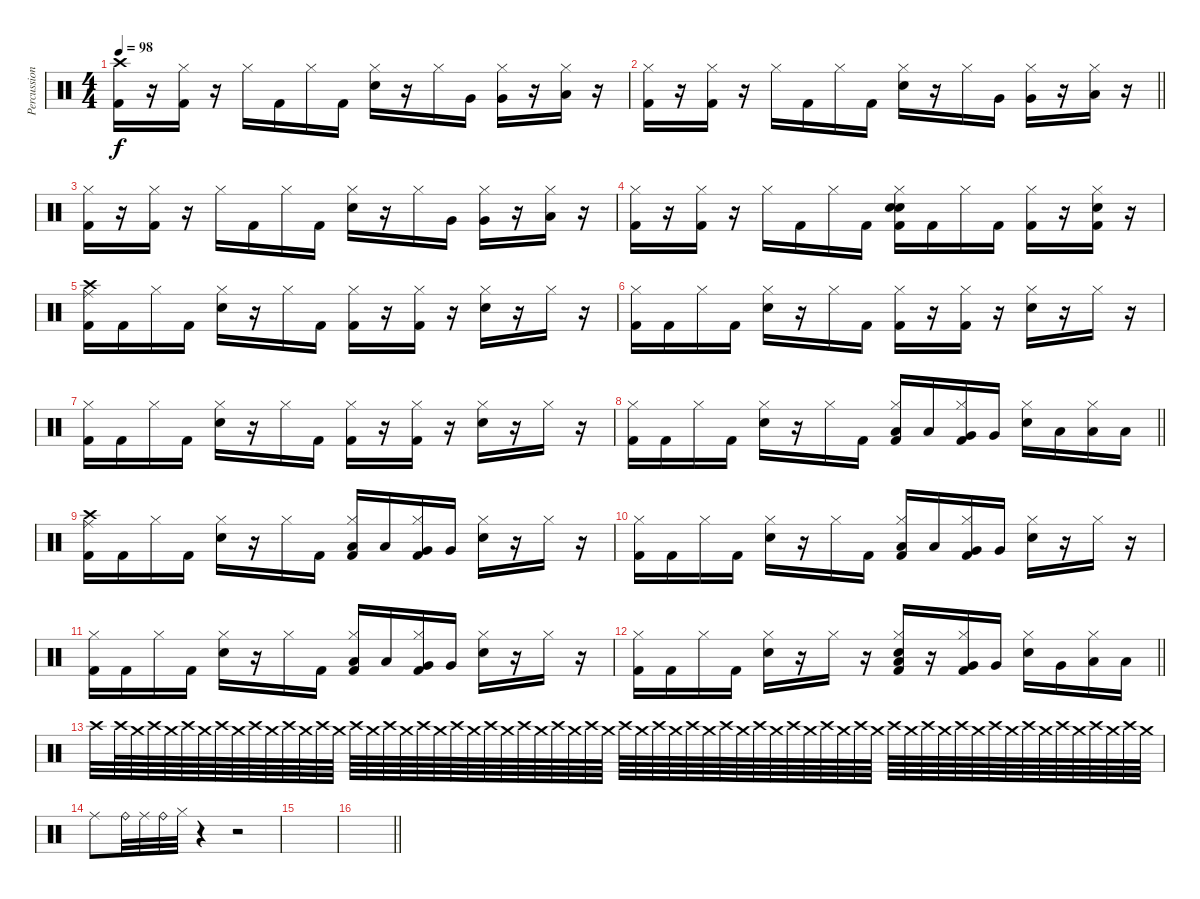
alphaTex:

\track ("Percussion" "Percussion") {instrument percussion}
\staff {score}
\articulation defaults
\ts (4 4)
\tempo 98
\clef neutral
\ks c
("Crash high (hit)" "Kick (hit) 2").16{dy f} r.16 ("Hi-Hat (closed)" "Kick (hit) 2").16 r.16 "Hi-Hat (closed)".16 "Kick (hit) 2".16 "Hi-Hat (closed)".16 "Kick (hit) 2".16 ("Hi-Hat (closed)" "Electric Snare (hit)").16 r.16 "Hi-Hat (closed)".16 "Very Low Tom (hit)".16 ("Hi-Hat (closed)" "Very Low Tom (hit)").16 r.16 ("Hi-Hat (closed)" "Low Floor Tom (hit)").16 r.16 |
\barLineRight lightlight
("Hi-Hat (closed)" "Kick (hit) 2").16 r.16 ("Hi-Hat (closed)" "Kick (hit) 2").16 r.16 "Hi-Hat (closed)".16 "Kick (hit) 2".16 "Hi-Hat (closed)".16 "Kick (hit) 2".16 ("Hi-Hat (closed)" "Electric Snare (hit)").16 r.16 "Hi-Hat (closed)".16 "Very Low Tom (hit)".16 ("Hi-Hat (closed)" "Very Low Tom (hit)").16 r.16 ("Hi-Hat (closed)" "Low Floor Tom (hit)").16 r.16 |
("Hi-Hat (closed)" "Kick (hit) 2").16 r.16 ("Hi-Hat (closed)" "Kick (hit) 2").16 r.16 "Hi-Hat (closed)".16 "Kick (hit) 2".16 "Hi-Hat (closed)".16 "Kick (hit) 2".16 ("Hi-Hat (closed)" "Electric Snare (hit)").16 r.16 "Hi-Hat (closed)".16 "Very Low Tom (hit)".16 ("Hi-Hat (closed)" "Very Low Tom (hit)").16 r.16 ("Hi-Hat (closed)" "Low Floor Tom (hit)").16 r.16 |
("Hi-Hat (closed)" "Kick (hit) 2").16 r.16 ("Hi-Hat (closed)" "Kick (hit) 2").16 r.16 "Hi-Hat (closed)".16 "Kick (hit) 2".16 "Hi-Hat (closed)".16 "Kick (hit) 2".16 ("Hi-Hat (closed)" "Electric Snare (hit)" "Electric Snare (hit)" "Kick (hit) 2").16 "Kick (hit) 2".16 "Hi-Hat (closed)".16 "Kick (hit) 2".16 ("Hi-Hat (closed)" "Kick (hit) 2").16 r.16 ("Hi-Hat (closed)" "Electric Snare (hit)" "Kick (hit) 2").16 r.16 |
("Crash high (hit)" "Ride (middle)" "Kick (hit) 2").16 "Kick (hit) 2".16 "Hi-Hat (closed)".16 "Kick (hit) 2".16 ("Hi-Hat (closed)" "Electric Snare (hit)").16 r.16 "Hi-Hat (closed)".16 "Kick (hit) 2".16 ("Hi-Hat (closed)" "Kick (hit) 2").16 r.16 ("Hi-Hat (closed)" "Kick (hit) 2").16 r.16 ("Hi-Hat (closed)" "Electric Snare (hit)").16 r.16 "Hi-Hat (closed)".16 r.16 |
("Hi-Hat (closed)" "Kick (hit) 2").16 "Kick (hit) 2".16 "Hi-Hat (closed)".16 "Kick (hit) 2".16 ("Hi-Hat (closed)" "Electric Snare (hit)").16 r.16 "Hi-Hat (closed)".16 "Kick (hit) 2".16 ("Hi-Hat (closed)" "Kick (hit) 2").16 r.16 ("Hi-Hat (closed)" "Kick (hit) 2").16 r.16 ("Hi-Hat (closed)" "Electric Snare (hit)").16 r.16 "Hi-Hat (closed)".16 r.16 |
("Hi-Hat (closed)" "Kick (hit) 2").16 "Kick (hit) 2".16 "Hi-Hat (closed)".16 "Kick (hit) 2".16 ("Hi-Hat (closed)" "Electric Snare (hit)").16 r.16 "Hi-Hat (closed)".16 "Kick (hit) 2".16 ("Hi-Hat (closed)" "Kick (hit) 2").16 r.16 ("Hi-Hat (closed)" "Kick (hit) 2").16 r.16 ("Hi-Hat (closed)" "Electric Snare (hit)").16 r.16 "Hi-Hat (closed)".16 r.16 |
\barLineRight lightlight
("Hi-Hat (closed)" "Kick (hit) 2").16 "Kick (hit) 2".16 "Hi-Hat (closed)".16 "Kick (hit) 2".16 ("Hi-Hat (closed)" "Electric Snare (hit)").16 r.16 "Hi-Hat (closed)".16 "Kick (hit) 2".16 ("Hi-Hat (closed)" "Low Tom (hit)" "Kick (hit) 2").16 "Low Tom (hit)".16 ("Hi-Hat (closed)" "Very Low Tom (hit)" "Kick (hit) 2").16 "Very Low Tom (hit)".16 ("Hi-Hat (closed)" "Electric Snare (hit)").16 "Low Floor Tom (hit)".16 ("Hi-Hat (closed)" "Low Floor Tom (hit)").16 "Low Floor Tom (hit)".16 |
("Crash high (hit)" "Ride (middle)" "Kick (hit) 2").16 "Kick (hit) 2".16 "Hi-Hat (closed)".16 "Kick (hit) 2".16 ("Hi-Hat (closed)" "Electric Snare (hit)").16 r.16 "Hi-Hat (closed)".16 "Kick (hit) 2".16 ("Hi-Hat (closed)" "Low Tom (hit)" "Kick (hit) 2").16 "Low Tom (hit)".16 ("Hi-Hat (closed)" "Very Low Tom (hit)" "Kick (hit) 2").16 "Very Low Tom (hit)".16 ("Hi-Hat (closed)" "Electric Snare (hit)").16 r.16 "Hi-Hat (closed)".16 r.16 |
("Hi-Hat (closed)" "Kick (hit) 2").16 "Kick (hit) 2".16 "Hi-Hat (closed)".16 "Kick (hit) 2".16 ("Hi-Hat (closed)" "Electric Snare (hit)").16 r.16 "Hi-Hat (closed)".16 "Kick (hit) 2".16 ("Hi-Hat (closed)" "Low Tom (hit)" "Kick (hit) 2").16 "Low Tom (hit)".16 ("Hi-Hat (closed)" "Very Low Tom (hit)" "Kick (hit) 2").16 "Very Low Tom (hit)".16 ("Hi-Hat (closed)" "Electric Snare (hit)").16 r.16 "Hi-Hat (closed)".16 r.16 |
("Hi-Hat (closed)" "Kick (hit) 2").16 "Kick (hit) 2".16 "Hi-Hat (closed)".16 "Kick (hit) 2".16 ("Hi-Hat (closed)" "Electric Snare (hit)").16 r.16 "Hi-Hat (closed)".16 "Kick (hit) 2".16 ("Hi-Hat (closed)" "Low Tom (hit)" "Kick (hit) 2").16 "Low Tom (hit)".16 ("Hi-Hat (closed)" "Very Low Tom (hit)" "Kick (hit) 2").16 "Very Low Tom (hit)".16 ("Hi-Hat (closed)" "Electric Snare (hit)").16 r.16 "Hi-Hat (closed)".16 r.16 |
\barLineRight lightlight
("Hi-Hat (closed)" "Kick (hit) 2").16 "Kick (hit) 2".16 "Hi-Hat (closed)".16 "Kick (hit) 2".16 ("Hi-Hat (closed)" "Electric Snare (hit)").16 r.16 "Hi-Hat (closed)".16 r.16 ("Hi-Hat (closed)" "Low Tom (hit)" "Electric Snare (hit)" "Kick (hit) 2").16 r.16 ("Hi-Hat (closed)" "Very Low Tom (hit)" "Kick (hit) 2").16 "Very Low Tom (hit)".16 ("Hi-Hat (closed)" "Electric Snare (hit)").16 "Very Low Tom (hit)".16 ("Hi-Hat (closed)" "Low Floor Tom (hit)").16 "Low Floor Tom (hit)".16 |
"Crash high (hit)".32 "Crash high (hit)".64 "Crash medium (hit)".64 "Crash high (hit)".64 "Crash medium (hit)".64 "Crash high (hit)".64 "Crash medium (hit)".64 "Crash high (hit)".64 "Crash medium (hit)".64 "Crash high (hit)".64 "Crash medium (hit)".64 "Crash high (hit)".64 "Crash medium (hit)".64 "Crash high (hit)".64 "Crash medium (hit)".64 "Crash high (hit)".64 "Crash medium (hit)".64 "Crash high (hit)".64 "Crash medium (hit)".64 "Crash high (hit)".64 "Crash medium (hit)".64 "Crash high (hit)".64 "Crash medium (hit)".64 "Crash high (hit)".64 "Crash medium (hit)".64 "Crash high (hit)".64 "Crash medium (hit)".64 "Crash high (hit)".64 "Crash medium (hit)".64 "Crash high (hit)".64 "Crash medium (hit)".64 "Crash high (hit)".64 "Crash medium (hit)".64 "Crash high (hit)".64 "Crash medium (hit)".64 "Crash high (hit)".64 "Crash medium (hit)".64 "Crash high (hit)".64 "Crash medium (hit)".64 "Crash high (hit)".64 "Crash medium (hit)".64 "Crash high (hit)".64 "Crash medium (hit)".64 "Crash high (hit)".64 "Crash medium (hit)".64 "Crash high (hit)".64 "Crash medium (hit)".64 "Crash high (hit)".64 "Crash medium (hit)".64 "Crash high (hit)".64 "Crash medium (hit)".64 "Crash high (hit)".64 "Crash medium (hit)".64 "Crash high (hit)".64 "Crash medium (hit)".64 "Crash high (hit)".64 "Crash medium (hit)".64 "Crash high (hit)".64 "Crash medium (hit)".64 "Crash high (hit)".64 "Crash medium (hit)".64 "Crash high (hit)".64 "Crash medium (hit)".64 |
"Ride (middle)".8 "Ride (bell)".32 "Ride (middle)".32 "Ride (bell)".32 "Hi-Hat (closed)".32 r.4 r.2 |
|
\barLineRight lightlight
